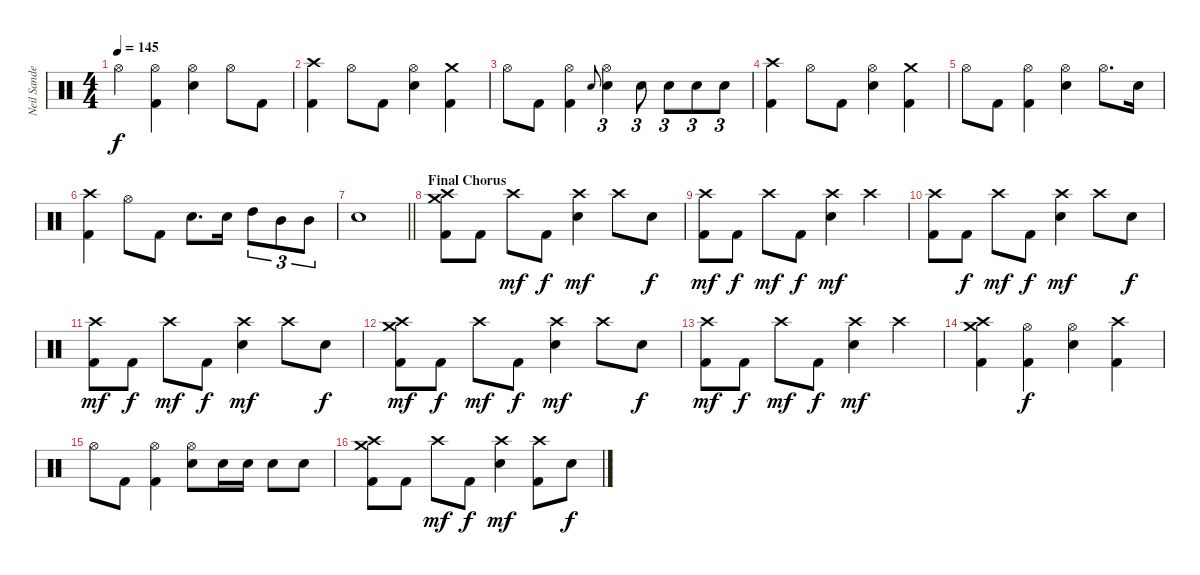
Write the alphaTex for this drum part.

\track ("Neil Sanderson" "Neil Sande") {instrument percussion}
\staff {score}
\articulation defaults
\ts (4 4)
\tempo 145
\clef neutral
\ks c "Hi-Hat (open)".4{dy f}
("Hi-Hat (open)" "Kick (hit) 2").4 ("Hi-Hat (open)" "Electric Snare (hit)").4 "Hi-Hat (open)".8 "Kick (hit) 2".8 |
("Crash high (hit)" "Kick (hit) 2").4 "Hi-Hat (open)".8 "Kick (hit) 2".8 ("Hi-Hat (open)" "Electric Snare (hit)").4 ("Crash medium (hit)" "Kick (hit) 2").4 |
"Hi-Hat (open)".8 "Kick (hit) 2".8 ("Hi-Hat (open)" "Kick (hit) 2").4 "Electric Snare (hit)".8{gr onbeat} ("Hi-Hat (open)" "Electric Snare (hit)").4{tu (3 2)} "Electric Snare (hit)".8{tu (3 2)} "Electric Snare (hit)".8{tu (3 2)} "Electric Snare (hit)".8{tu (3 2)} "Electric Snare (hit)".8{tu (3 2)} |
("Crash high (hit)" "Kick (hit) 2").4 "Hi-Hat (open)".8 "Kick (hit) 2".8 ("Hi-Hat (open)" "Electric Snare (hit)").4 ("Crash medium (hit)" "Kick (hit) 2").4 |
"Hi-Hat (open)".8 "Kick (hit) 2".8 ("Hi-Hat (open)" "Kick (hit) 2").4 ("Hi-Hat (open)" "Electric Snare (hit)").4 "Hi-Hat (open)".8{d} "Electric Snare (hit)".16 |
("Crash high (hit)" "Kick (hit) 2").4 "Hi-Hat (open)".8 "Kick (hit) 2".8 "Electric Snare (hit)".8{d} "Electric Snare (hit)".16 "High Tom (hit)".8{tu (3 2)} "Mid Tom (hit)".8{tu (3 2)} "Mid Tom (hit)".8{tu (3 2)} |
\barLineRight lightlight "Electric Snare (hit)".1
|
\section ("" "Final Chorus")
("Crash high (hit)" "Crash medium (hit)" "Kick (hit) 2").8 "Kick (hit) 2".8 "Crash high (hit)".8{dy mf} "Kick (hit) 2".8{dy f} ("Crash high (hit)" "Electric Snare (hit)").4{dy mf} "Crash high (hit)".8 "Electric Snare (hit)".8{dy f} |
("Crash high (hit)" "Kick (hit) 2").8{dy mf} "Kick (hit) 2".8{dy f} "Crash high (hit)".8{dy mf} "Kick (hit) 2".8{dy f} ("Crash high (hit)" "Electric Snare (hit)").4{dy mf} "Crash high (hit)".4 |
("Crash high (hit)" "Kick (hit) 2").8 "Kick (hit) 2".8{dy f} "Crash high (hit)".8{dy mf} "Kick (hit) 2".8{dy f} ("Crash high (hit)" "Electric Snare (hit)").4{dy mf} "Crash high (hit)".8 "Electric Snare (hit)".8{dy f} |
("Crash high (hit)" "Kick (hit) 2").8{dy mf} "Kick (hit) 2".8{dy f} "Crash high (hit)".8{dy mf} "Kick (hit) 2".8{dy f} ("Crash high (hit)" "Electric Snare (hit)").4{dy mf} "Crash high (hit)".8 "Electric Snare (hit)".8{dy f} |
("Crash high (hit)" "Crash medium (hit)" "Kick (hit) 2").8{dy mf} "Kick (hit) 2".8{dy f} "Crash high (hit)".8{dy mf} "Kick (hit) 2".8{dy f} ("Crash high (hit)" "Electric Snare (hit)").4{dy mf} "Crash high (hit)".8 "Electric Snare (hit)".8{dy f} |
("Crash high (hit)" "Kick (hit) 2").8{dy mf} "Kick (hit) 2".8{dy f} "Crash high (hit)".8{dy mf} "Kick (hit) 2".8{dy f} ("Crash high (hit)" "Electric Snare (hit)").4{dy mf} "Crash high (hit)".4 |
("Crash high (hit)" "Crash medium (hit)" "Kick (hit) 2").4 ("Hi-Hat (open)" "Kick (hit) 2").4{dy f} ("Hi-Hat (open)" "Electric Snare (hit)").4 ("Crash high (hit)" "Kick (hit) 2").4 |
"Hi-Hat (open)".8 "Kick (hit) 2".8 ("Hi-Hat (open)" "Kick (hit) 2").4 ("Hi-Hat (open)" "Electric Snare (hit)").8 "Electric Snare (hit)".16 "Electric Snare (hit)".16 "Electric Snare (hit)".8 "Electric Snare (hit)".8 |
("Crash high (hit)" "Crash medium (hit)" "Kick (hit) 2").8 "Kick (hit) 2".8 "Crash high (hit)".8{dy mf} "Kick (hit) 2".8{dy f} ("Crash high (hit)" "Electric Snare (hit)").4{dy mf} ("Crash high (hit)" "Kick (hit) 2").8 "Electric Snare (hit)".8{dy f}
